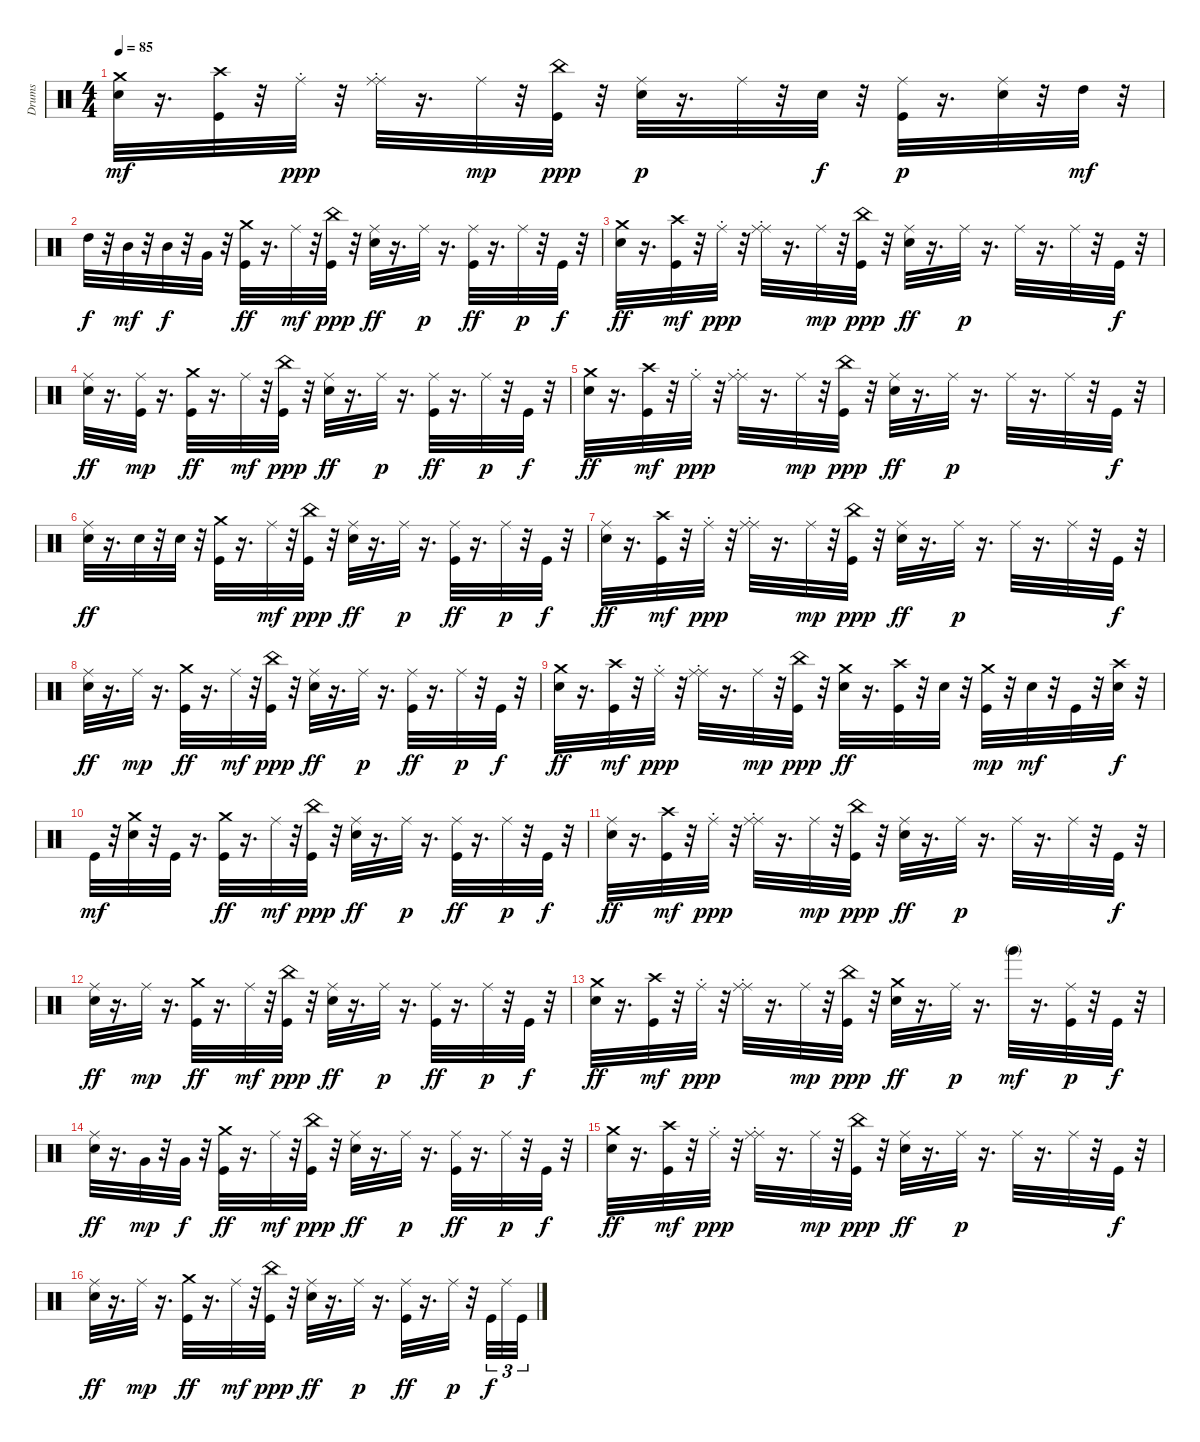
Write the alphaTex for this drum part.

\track ("Drums" "Drums") {instrument percussion}
\staff {score}
\articulation defaults
\ts (4 4)
\tempo 85
\clef neutral
\ks c
("Crash medium (hit)" "Electric Snare (hit)").32{dy mf} r.16{d} ("Crash high (hit)" "Kick (hit)").32 r.32 "Ride (choke)".32{dy ppp} r.32 ("Ride (middle)" "Ride (choke)").32 r.16{d} "Ride (middle)".32{dy mp} r.32 ("Kick (hit)" "China (choke)").32{dy ppp} r.32 ("Electric Snare (hit)" "Ride (middle)").32{dy p} r.16{d} "Ride (middle)".32 r.32 "Electric Snare (hit)".32{dy f} r.32 ("Kick (hit)" "Ride (middle)").32{dy p} r.16{d} ("Electric Snare (hit)" "Ride (middle)").32 r.32 "High Tom (hit)".32{dy mf} r.32 |
"High Tom (hit)".32{dy f} r.32 "Mid Tom (hit)".32{dy mf} r.32 "Mid Tom (hit)".32{dy f} r.32 "Very Low Tom (hit)".32 r.32 ("Crash medium (hit)" "Kick (hit)").32{dy ff} r.16{d} "Ride (middle)".32{dy mf} r.32 ("China (choke)" "Kick (hit)").32{dy ppp} r.32 ("Ride (middle)" "Electric Snare (hit)").32{dy ff} r.16{d} "Ride (middle)".32{dy p} r.16{d} ("Ride (middle)" "Kick (hit)").32{dy ff} r.16{d} "Ride (middle)".32{dy p} r.32 "Kick (hit)".32{dy f} r.32 |
("Crash medium (hit)" "Electric Snare (hit)").32{dy ff} r.16{d} ("Crash high (hit)" "Kick (hit)").32{dy mf} r.32 "Ride (choke)".32{dy ppp} r.32 ("Ride (middle)" "Ride (choke)").32 r.16{d} "Ride (middle)".32{dy mp} r.32 ("China (choke)" "Kick (hit)").32{dy ppp} r.32 ("Ride (middle)" "Electric Snare (hit)").32{dy ff} r.16{d} "Ride (middle)".32{dy p} r.16{d} "Ride (middle)".32 r.16{d} "Ride (middle)".32 r.32 "Kick (hit)".32{dy f} r.32 |
("Ride (middle)" "Electric Snare (hit)").32{dy ff} r.16{d} ("Kick (hit)" "Ride (middle)").32{dy mp} r.16{d} ("Crash medium (hit)" "Kick (hit)").32{dy ff} r.16{d} "Ride (middle)".32{dy mf} r.32 ("China (choke)" "Kick (hit)").32{dy ppp} r.32 ("Ride (middle)" "Electric Snare (hit)").32{dy ff} r.16{d} "Ride (middle)".32{dy p} r.16{d} ("Ride (middle)" "Kick (hit)").32{dy ff} r.16{d} "Ride (middle)".32{dy p} r.32 "Kick (hit)".32{dy f} r.32 |
("Crash medium (hit)" "Electric Snare (hit)").32{dy ff} r.16{d} ("Crash high (hit)" "Kick (hit)").32{dy mf} r.32 "Ride (choke)".32{dy ppp} r.32 ("Ride (middle)" "Ride (choke)").32 r.16{d} "Ride (middle)".32{dy mp} r.32 ("China (choke)" "Kick (hit)").32{dy ppp} r.32 ("Ride (middle)" "Electric Snare (hit)").32{dy ff} r.16{d} "Ride (middle)".32{dy p} r.16{d} "Ride (middle)".32 r.16{d} "Ride (middle)".32 r.32 "Kick (hit)".32{dy f} r.32 |
("Ride (middle)" "Electric Snare (hit)").32{dy ff} r.16{d} "Electric Snare (hit)".32 r.32 "Electric Snare (hit)".32 r.32 ("Crash medium (hit)" "Kick (hit)").32 r.16{d} "Ride (middle)".32{dy mf} r.32 ("China (choke)" "Kick (hit)").32{dy ppp} r.32 ("Ride (middle)" "Electric Snare (hit)").32{dy ff} r.16{d} "Ride (middle)".32{dy p} r.16{d} ("Ride (middle)" "Kick (hit)").32{dy ff} r.16{d} "Ride (middle)".32{dy p} r.32 "Kick (hit)".32{dy f} r.32 |
("Ride (middle)" "Electric Snare (hit)").32{dy ff} r.16{d} ("Crash high (hit)" "Kick (hit)").32{dy mf} r.32 "Ride (choke)".32{dy ppp} r.32 ("Ride (middle)" "Ride (choke)").32 r.16{d} "Ride (middle)".32{dy mp} r.32 ("China (choke)" "Kick (hit)").32{dy ppp} r.32 ("Ride (middle)" "Electric Snare (hit)").32{dy ff} r.16{d} "Ride (middle)".32{dy p} r.16{d} "Ride (middle)".32 r.16{d} "Ride (middle)".32 r.32 "Kick (hit)".32{dy f} r.32 |
("Ride (middle)" "Electric Snare (hit)").32{dy ff} r.16{d} "Ride (middle)".32{dy mp} r.16{d} ("Crash medium (hit)" "Kick (hit)").32{dy ff} r.16{d} "Ride (middle)".32{dy mf} r.32 ("China (choke)" "Kick (hit)").32{dy ppp} r.32 ("Ride (middle)" "Electric Snare (hit)").32{dy ff} r.16{d} "Ride (middle)".32{dy p} r.16{d} ("Ride (middle)" "Kick (hit)").32{dy ff} r.16{d} "Ride (middle)".32{dy p} r.32 "Kick (hit)".32{dy f} r.32 |
("Crash medium (hit)" "Electric Snare (hit)").32{dy ff} r.16{d} ("Crash high (hit)" "Kick (hit)").32{dy mf} r.32 "Ride (choke)".32{dy ppp} r.32 ("Ride (middle)" "Ride (choke)").32 r.16{d} "Ride (middle)".32{dy mp} r.32 ("China (choke)" "Kick (hit)").32{dy ppp} r.32 ("Crash medium (hit)" "Electric Snare (hit)").32{dy ff} r.16{d} ("Crash high (hit)" "Kick (hit)").32 r.32 "Electric Snare (hit)".32 r.32 ("Crash medium (hit)" "Kick (hit)").32{dy mp} r.32 "Electric Snare (hit)".32{dy mf} r.32 "Kick (hit)".32 r.32 ("Crash high (hit)" "Electric Snare (hit)").32{dy f} r.32 |
"Kick (hit)".32{dy mf} r.32 ("Crash medium (hit)" "Electric Snare (hit)").32 r.32 "Kick (hit)".32 r.16{d} ("Crash medium (hit)" "Kick (hit)").32{dy ff} r.16{d} "Ride (middle)".32{dy mf} r.32 ("China (choke)" "Kick (hit)").32{dy ppp} r.32 ("Ride (middle)" "Electric Snare (hit)").32{dy ff} r.16{d} "Ride (middle)".32{dy p} r.16{d} ("Ride (middle)" "Kick (hit)").32{dy ff} r.16{d} "Ride (middle)".32{dy p} r.32 "Kick (hit)".32{dy f} r.32 |
("Ride (middle)" "Electric Snare (hit)").32{dy ff} r.16{d} ("Crash high (hit)" "Kick (hit)").32{dy mf} r.32 "Ride (choke)".32{dy ppp} r.32 ("Ride (middle)" "Ride (choke)").32 r.16{d} "Ride (middle)".32{dy mp} r.32 ("China (choke)" "Kick (hit)").32{dy ppp} r.32 ("Ride (middle)" "Electric Snare (hit)").32{dy ff} r.16{d} "Ride (middle)".32{dy p} r.16{d} "Ride (middle)".32 r.16{d} "Ride (middle)".32 r.32 "Kick (hit)".32{dy f} r.32 |
("Ride (middle)" "Electric Snare (hit)").32{dy ff} r.16{d} "Ride (middle)".32{dy mp} r.16{d} ("Crash medium (hit)" "Kick (hit)").32{dy ff} r.16{d} "Ride (middle)".32{dy mf} r.32 ("China (choke)" "Kick (hit)").32{dy ppp} r.32 ("Ride (middle)" "Electric Snare (hit)").32{dy ff} r.16{d} "Ride (middle)".32{dy p} r.16{d} ("Ride (middle)" "Kick (hit)").32{dy ff} r.16{d} "Ride (middle)".32{dy p} r.32 "Kick (hit)".32{dy f} r.32 |
("Crash medium (hit)" "Electric Snare (hit)").32{dy ff} r.16{d} ("Crash high (hit)" "Kick (hit)").32{dy mf} r.32 "Ride (choke)".32{dy ppp} r.32 ("Ride (middle)" "Ride (choke)").32 r.16{d} "Ride (middle)".32{dy mp} r.32 ("China (choke)" "Kick (hit)").32{dy ppp} r.32 ("Crash medium (hit)" "Electric Snare (hit)").32{dy ff} r.16{d} "Ride (middle)".32{dy p} r.16{d} "Hand (mute) 2".32{dy mf} r.16{d} ("Kick (hit)" "Ride (middle)").32{dy p} r.32 "Kick (hit)".32{dy f} r.32 |
("Ride (middle)" "Electric Snare (hit)").32{dy ff} r.16{d} "Very Low Tom (hit)".32{dy mp} r.32 "Very Low Tom (hit)".32{dy f} r.32 ("Crash medium (hit)" "Kick (hit)").32{dy ff} r.16{d} "Ride (middle)".32{dy mf} r.32 ("China (choke)" "Kick (hit)").32{dy ppp} r.32 ("Ride (middle)" "Electric Snare (hit)").32{dy ff} r.16{d} "Ride (middle)".32{dy p} r.16{d} ("Ride (middle)" "Kick (hit)").32{dy ff} r.16{d} "Ride (middle)".32{dy p} r.32 "Kick (hit)".32{dy f} r.32 |
("Crash medium (hit)" "Electric Snare (hit)").32{dy ff} r.16{d} ("Crash high (hit)" "Kick (hit)").32{dy mf} r.32 "Ride (choke)".32{dy ppp} r.32 ("Ride (middle)" "Ride (choke)").32 r.16{d} "Ride (middle)".32{dy mp} r.32 ("China (choke)" "Kick (hit)").32{dy ppp} r.32 ("Ride (middle)" "Electric Snare (hit)").32{dy ff} r.16{d} "Ride (middle)".32{dy p} r.16{d} "Ride (middle)".32 r.16{d} "Ride (middle)".32 r.32 "Kick (hit)".32{dy f} r.32 |
("Ride (middle)" "Electric Snare (hit)").32{dy ff} r.16{d} "Ride (middle)".32{dy mp} r.16{d} ("Crash medium (hit)" "Kick (hit)").32{dy ff} r.16{d} "Ride (middle)".32{dy mf} r.32 ("China (choke)" "Kick (hit)").32{dy ppp} r.32 ("Ride (middle)" "Electric Snare (hit)").32{dy ff} r.16{d} "Ride (middle)".32{dy p} r.16{d} ("Ride (middle)" "Kick (hit)").32{dy ff} r.16{d} "Ride (middle)".32{dy p} r.32 "Kick (hit)".32{tu (3 2) dy f} "Cowbell medium (tip)".32{tu (3 2)} "Kick (hit)".32{tu (3 2)}
